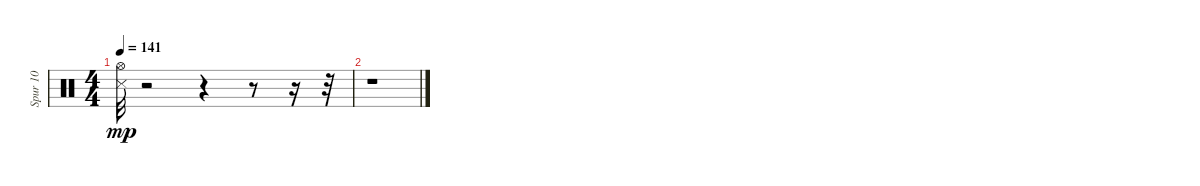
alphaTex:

\track ("Spur 10" "Spur 10") {instrument percussion}
\staff {score}
\articulation defaults
\ts (4 4)
\tempo 141
\clef neutral
\ks c
("Snare (side stick) 3" "Hi-Hat (open)").32{dy mp} r.2 r.4 r.8 r.16 r.32 |
r.1
